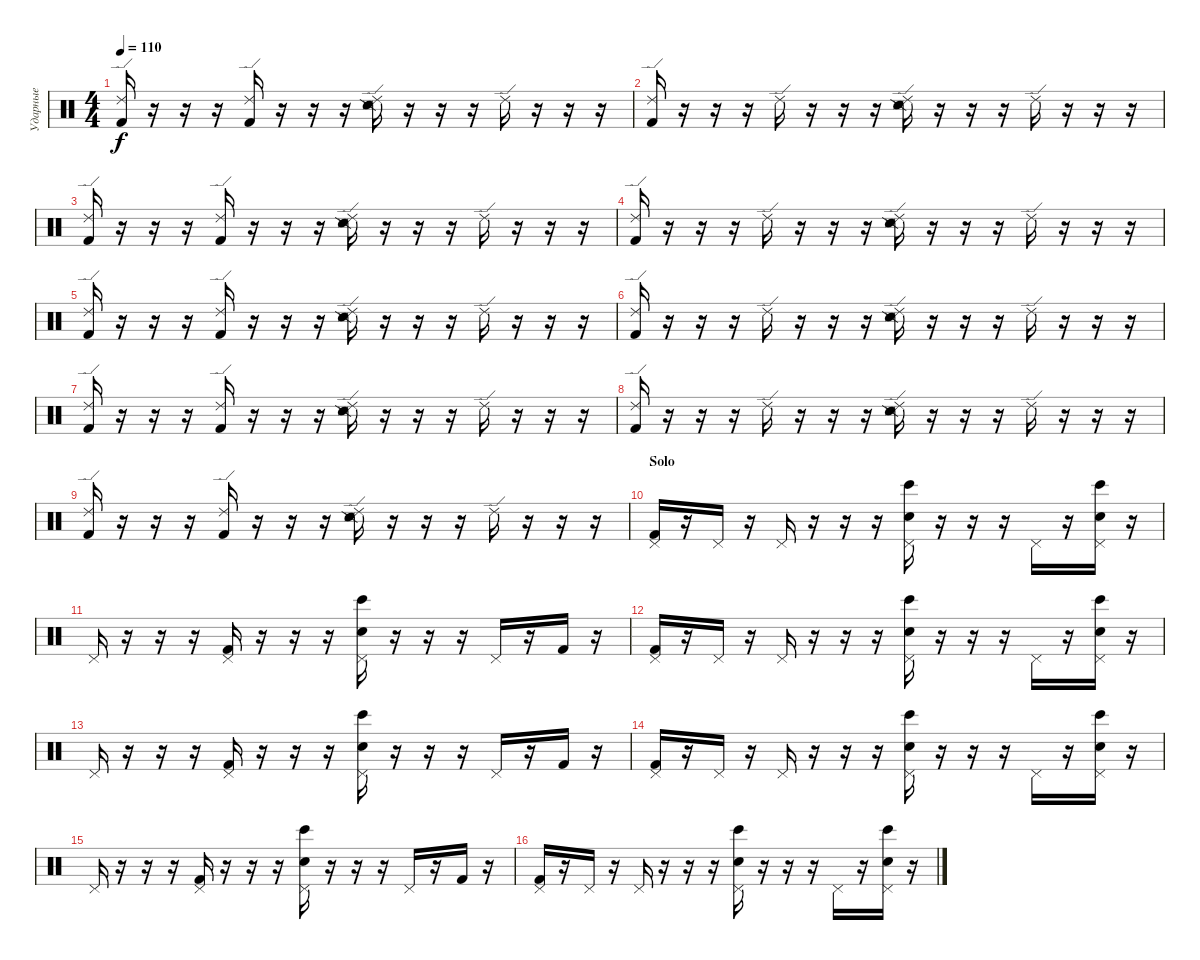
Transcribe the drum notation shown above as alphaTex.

\track ("Ударные" "Ударные") {instrument percussion}
\staff {score}
\articulation defaults
\ts (4 4)
\tempo 110
\clef neutral
\ks c
("Ride (edge) 2" "Kick (hit) 2").16{dy f} r.16 r.16 r.16 ("Ride (edge) 2" "Kick (hit) 2").16 r.16 r.16 r.16 ("Ride (edge) 2" "Snare (side stick) 2" "Metronome (hit)").16 r.16 r.16 r.16 "Ride (edge) 2".16 r.16 r.16 r.16 |
("Ride (edge) 2" "Kick (hit) 2").16 r.16 r.16 r.16 "Ride (edge) 2".16 r.16 r.16 r.16 ("Ride (edge) 2" "Snare (side stick) 2" "Metronome (hit)").16 r.16 r.16 r.16 "Ride (edge) 2".16 r.16 r.16 r.16 |
("Ride (edge) 2" "Kick (hit) 2").16 r.16 r.16 r.16 ("Ride (edge) 2" "Kick (hit) 2").16 r.16 r.16 r.16 ("Ride (edge) 2" "Snare (side stick) 2" "Metronome (hit)").16 r.16 r.16 r.16 "Ride (edge) 2".16 r.16 r.16 r.16 |
("Ride (edge) 2" "Kick (hit) 2").16 r.16 r.16 r.16 "Ride (edge) 2".16 r.16 r.16 r.16 ("Ride (edge) 2" "Snare (side stick) 2" "Metronome (hit)").16 r.16 r.16 r.16 "Ride (edge) 2".16 r.16 r.16 r.16 |
("Ride (edge) 2" "Kick (hit) 2").16 r.16 r.16 r.16 ("Ride (edge) 2" "Kick (hit) 2").16 r.16 r.16 r.16 ("Ride (edge) 2" "Snare (side stick) 2" "Metronome (hit)").16 r.16 r.16 r.16 "Ride (edge) 2".16 r.16 r.16 r.16 |
("Ride (edge) 2" "Kick (hit) 2").16 r.16 r.16 r.16 "Ride (edge) 2".16 r.16 r.16 r.16 ("Ride (edge) 2" "Snare (side stick) 2" "Metronome (hit)").16 r.16 r.16 r.16 "Ride (edge) 2".16 r.16 r.16 r.16 |
("Ride (edge) 2" "Kick (hit) 2").16 r.16 r.16 r.16 ("Ride (edge) 2" "Kick (hit) 2").16 r.16 r.16 r.16 ("Ride (edge) 2" "Snare (side stick) 2" "Metronome (hit)").16 r.16 r.16 r.16 "Ride (edge) 2".16 r.16 r.16 r.16 |
("Ride (edge) 2" "Kick (hit) 2").16 r.16 r.16 r.16 "Ride (edge) 2".16 r.16 r.16 r.16 ("Ride (edge) 2" "Snare (side stick) 2" "Metronome (hit)").16 r.16 r.16 r.16 "Ride (edge) 2".16 r.16 r.16 r.16 |
("Ride (edge) 2" "Kick (hit) 2").16 r.16 r.16 r.16 ("Ride (edge) 2" "Kick (hit) 2").16 r.16 r.16 r.16 ("Ride (edge) 2" "Snare (side stick) 2" "Metronome (hit)").16 r.16 r.16 r.16 "Ride (edge) 2".16 r.16 r.16 r.16 |
\section ("" "Solo")
("Pedal Hi-Hat (hit)" "Kick (hit) 2").16 r.16 "Pedal Hi-Hat (hit)".16 r.16 "Pedal Hi-Hat (hit)".16 r.16 r.16 r.16 ("Pedal Hi-Hat (hit)" "Electric Snare (hit)" "Bongo High (hit)").16 r.16 r.16 r.16 "Pedal Hi-Hat (hit)".16 r.16 ("Pedal Hi-Hat (hit)" "Electric Snare (hit)" "Bongo High (hit)").16 r.16 |
"Pedal Hi-Hat (hit)".16 r.16 r.16 r.16 ("Pedal Hi-Hat (hit)" "Kick (hit) 2").16 r.16 r.16 r.16 ("Pedal Hi-Hat (hit)" "Electric Snare (hit)" "Bongo High (hit)").16 r.16 r.16 r.16 "Pedal Hi-Hat (hit)".16 r.16 "Kick (hit) 2".16 r.16 |
("Pedal Hi-Hat (hit)" "Kick (hit) 2").16 r.16 "Pedal Hi-Hat (hit)".16 r.16 "Pedal Hi-Hat (hit)".16 r.16 r.16 r.16 ("Pedal Hi-Hat (hit)" "Electric Snare (hit)" "Bongo High (hit)").16 r.16 r.16 r.16 "Pedal Hi-Hat (hit)".16 r.16 ("Pedal Hi-Hat (hit)" "Electric Snare (hit)" "Bongo High (hit)").16 r.16 |
"Pedal Hi-Hat (hit)".16 r.16 r.16 r.16 ("Pedal Hi-Hat (hit)" "Kick (hit) 2").16 r.16 r.16 r.16 ("Pedal Hi-Hat (hit)" "Electric Snare (hit)" "Bongo High (hit)").16 r.16 r.16 r.16 "Pedal Hi-Hat (hit)".16 r.16 "Kick (hit) 2".16 r.16 |
("Pedal Hi-Hat (hit)" "Kick (hit) 2").16 r.16 "Pedal Hi-Hat (hit)".16 r.16 "Pedal Hi-Hat (hit)".16 r.16 r.16 r.16 ("Pedal Hi-Hat (hit)" "Electric Snare (hit)" "Bongo High (hit)").16 r.16 r.16 r.16 "Pedal Hi-Hat (hit)".16 r.16 ("Pedal Hi-Hat (hit)" "Electric Snare (hit)" "Bongo High (hit)").16 r.16 |
"Pedal Hi-Hat (hit)".16 r.16 r.16 r.16 ("Pedal Hi-Hat (hit)" "Kick (hit) 2").16 r.16 r.16 r.16 ("Pedal Hi-Hat (hit)" "Electric Snare (hit)" "Bongo High (hit)").16 r.16 r.16 r.16 "Pedal Hi-Hat (hit)".16 r.16 "Kick (hit) 2".16 r.16 |
("Pedal Hi-Hat (hit)" "Kick (hit) 2").16 r.16 "Pedal Hi-Hat (hit)".16 r.16 "Pedal Hi-Hat (hit)".16 r.16 r.16 r.16 ("Pedal Hi-Hat (hit)" "Electric Snare (hit)" "Bongo High (hit)").16 r.16 r.16 r.16 "Pedal Hi-Hat (hit)".16 r.16 ("Pedal Hi-Hat (hit)" "Electric Snare (hit)" "Bongo High (hit)").16 r.16
